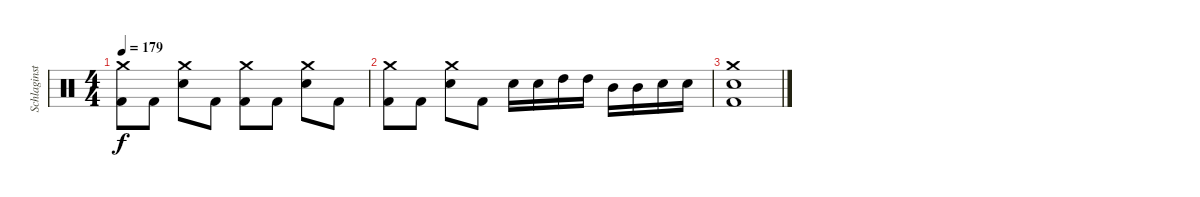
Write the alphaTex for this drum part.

\track ("Schlaginstrumente - Auswahl" "Schlaginst") {instrument percussion}
\staff {score}
\articulation defaults
\ts (4 4)
\tempo 179
\clef neutral
\ks c
("Crash medium (hit)" "Kick (hit) 2").8{dy f} "Kick (hit) 2".8 ("Crash medium (hit)" "Electric Snare (hit)").8 "Kick (hit) 2".8 ("Crash medium (hit)" "Kick (hit) 2").8 "Kick (hit) 2".8 ("Crash medium (hit)" "Electric Snare (hit)").8 "Kick (hit) 2".8 |
("Crash medium (hit)" "Kick (hit) 2").8 "Kick (hit) 2".8 ("Crash medium (hit)" "Electric Snare (hit)").8 "Kick (hit) 2".8 "Electric Snare (hit)".16 "Electric Snare (hit)".16 "High Tom (hit)".16 "High Tom (hit)".16 "Mid Tom (hit)".16 "Mid Tom (hit)".16 "Electric Snare (hit)".16 "Electric Snare (hit)".16 |
("Crash medium (hit)" "Electric Snare (hit)" "Kick (hit) 2").1
